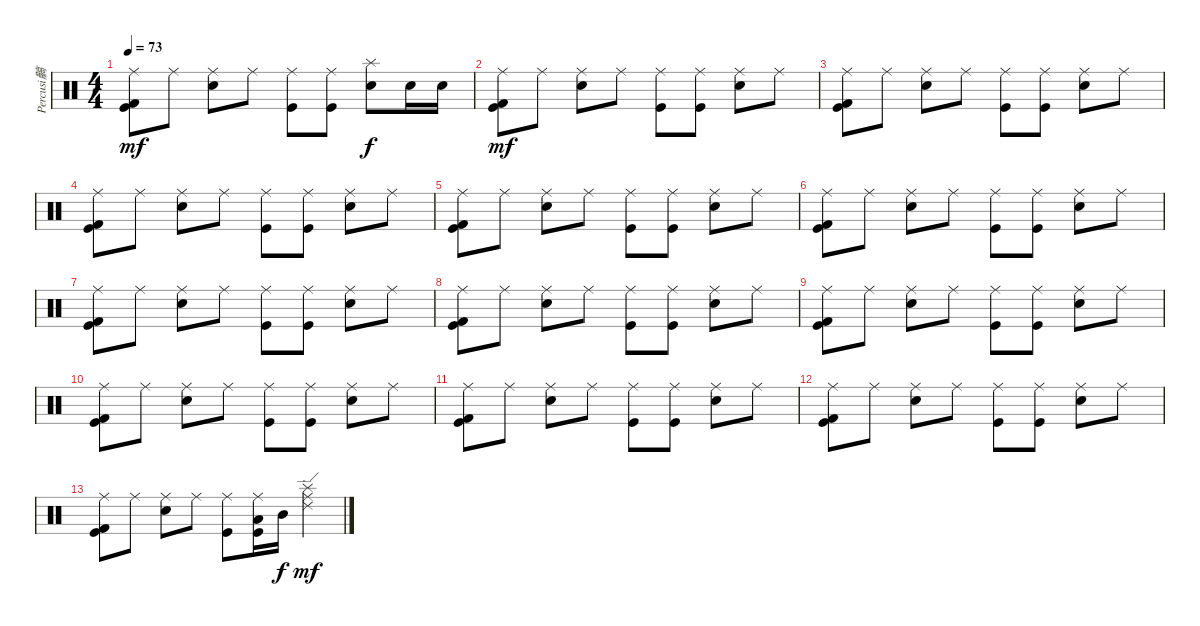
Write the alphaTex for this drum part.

\track ("Percusi髇" "Percusi髇") {instrument percussion}
\staff {score}
\articulation defaults
\ts (4 4)
\tempo 73
\clef neutral
\ks c
("Ride (middle)" "Kick (hit) 2" "Kick (hit)").8{dy mf} "Ride (middle)".8 ("Ride (middle)" "Electric Snare (hit)").8 "Ride (middle)".8 ("Ride (middle)" "Kick (hit)").8 ("Ride (middle)" "Kick (hit)").8 ("Splash (hit)" "Electric Snare (hit)").8{dy f} "Electric Snare (hit)".16 "Electric Snare (hit)".16 |
("Ride (middle)" "Kick (hit) 2" "Kick (hit)").8{dy mf} "Ride (middle)".8 ("Ride (middle)" "Electric Snare (hit)").8 "Ride (middle)".8 ("Ride (middle)" "Kick (hit)").8 ("Ride (middle)" "Kick (hit)").8 ("Ride (middle)" "Electric Snare (hit)").8 "Ride (middle)".8 |
("Ride (middle)" "Kick (hit) 2" "Kick (hit)").8 "Ride (middle)".8 ("Ride (middle)" "Electric Snare (hit)").8 "Ride (middle)".8 ("Ride (middle)" "Kick (hit)").8 ("Ride (middle)" "Kick (hit)").8 ("Ride (middle)" "Electric Snare (hit)").8 "Ride (middle)".8 |
("Ride (middle)" "Kick (hit) 2" "Kick (hit)").8 "Ride (middle)".8 ("Ride (middle)" "Electric Snare (hit)").8 "Ride (middle)".8 ("Ride (middle)" "Kick (hit)").8 ("Ride (middle)" "Kick (hit)").8 ("Ride (middle)" "Electric Snare (hit)").8 "Ride (middle)".8 |
("Ride (middle)" "Kick (hit) 2" "Kick (hit)").8 "Ride (middle)".8 ("Ride (middle)" "Electric Snare (hit)").8 "Ride (middle)".8 ("Ride (middle)" "Kick (hit)").8 ("Ride (middle)" "Kick (hit)").8 ("Ride (middle)" "Electric Snare (hit)").8 "Ride (middle)".8 |
("Ride (middle)" "Kick (hit) 2" "Kick (hit)").8 "Ride (middle)".8 ("Ride (middle)" "Electric Snare (hit)").8 "Ride (middle)".8 ("Ride (middle)" "Kick (hit)").8 ("Ride (middle)" "Kick (hit)").8 ("Ride (middle)" "Electric Snare (hit)").8 "Ride (middle)".8 |
("Ride (middle)" "Kick (hit) 2" "Kick (hit)").8 "Ride (middle)".8 ("Ride (middle)" "Electric Snare (hit)").8 "Ride (middle)".8 ("Ride (middle)" "Kick (hit)").8 ("Ride (middle)" "Kick (hit)").8 ("Ride (middle)" "Electric Snare (hit)").8 "Ride (middle)".8 |
("Ride (middle)" "Kick (hit) 2" "Kick (hit)").8 "Ride (middle)".8 ("Ride (middle)" "Electric Snare (hit)").8 "Ride (middle)".8 ("Ride (middle)" "Kick (hit)").8 ("Ride (middle)" "Kick (hit)").8 ("Ride (middle)" "Electric Snare (hit)").8 "Ride (middle)".8 |
("Ride (middle)" "Kick (hit) 2" "Kick (hit)").8 "Ride (middle)".8 ("Ride (middle)" "Electric Snare (hit)").8 "Ride (middle)".8 ("Ride (middle)" "Kick (hit)").8 ("Ride (middle)" "Kick (hit)").8 ("Ride (middle)" "Electric Snare (hit)").8 "Ride (middle)".8 |
("Ride (middle)" "Kick (hit) 2" "Kick (hit)").8 "Ride (middle)".8 ("Ride (middle)" "Electric Snare (hit)").8 "Ride (middle)".8 ("Ride (middle)" "Kick (hit)").8 ("Ride (middle)" "Kick (hit)").8 ("Ride (middle)" "Electric Snare (hit)").8 "Ride (middle)".8 |
("Ride (middle)" "Kick (hit) 2" "Kick (hit)").8 "Ride (middle)".8 ("Ride (middle)" "Electric Snare (hit)").8 "Ride (middle)".8 ("Ride (middle)" "Kick (hit)").8 ("Ride (middle)" "Kick (hit)").8 ("Ride (middle)" "Electric Snare (hit)").8 "Ride (middle)".8 |
("Ride (middle)" "Kick (hit) 2" "Kick (hit)").8 "Ride (middle)".8 ("Ride (middle)" "Electric Snare (hit)").8 "Ride (middle)".8 ("Ride (middle)" "Kick (hit)").8 ("Ride (middle)" "Kick (hit)").8 ("Ride (middle)" "Electric Snare (hit)").8 "Ride (middle)".8 |
("Ride (middle)" "Kick (hit) 2" "Kick (hit)").8 "Ride (middle)".8 ("Ride (middle)" "Electric Snare (hit)").8 "Ride (middle)".8 ("Ride (middle)" "Kick (hit)").8 ("Ride (middle)" "Low Tom (hit)" "Kick (hit)").16 "Mid Tom (hit)".16{dy f} ("Ride (middle)" "Ride (edge) 2" "Splash (hit)").4{dy mf}
